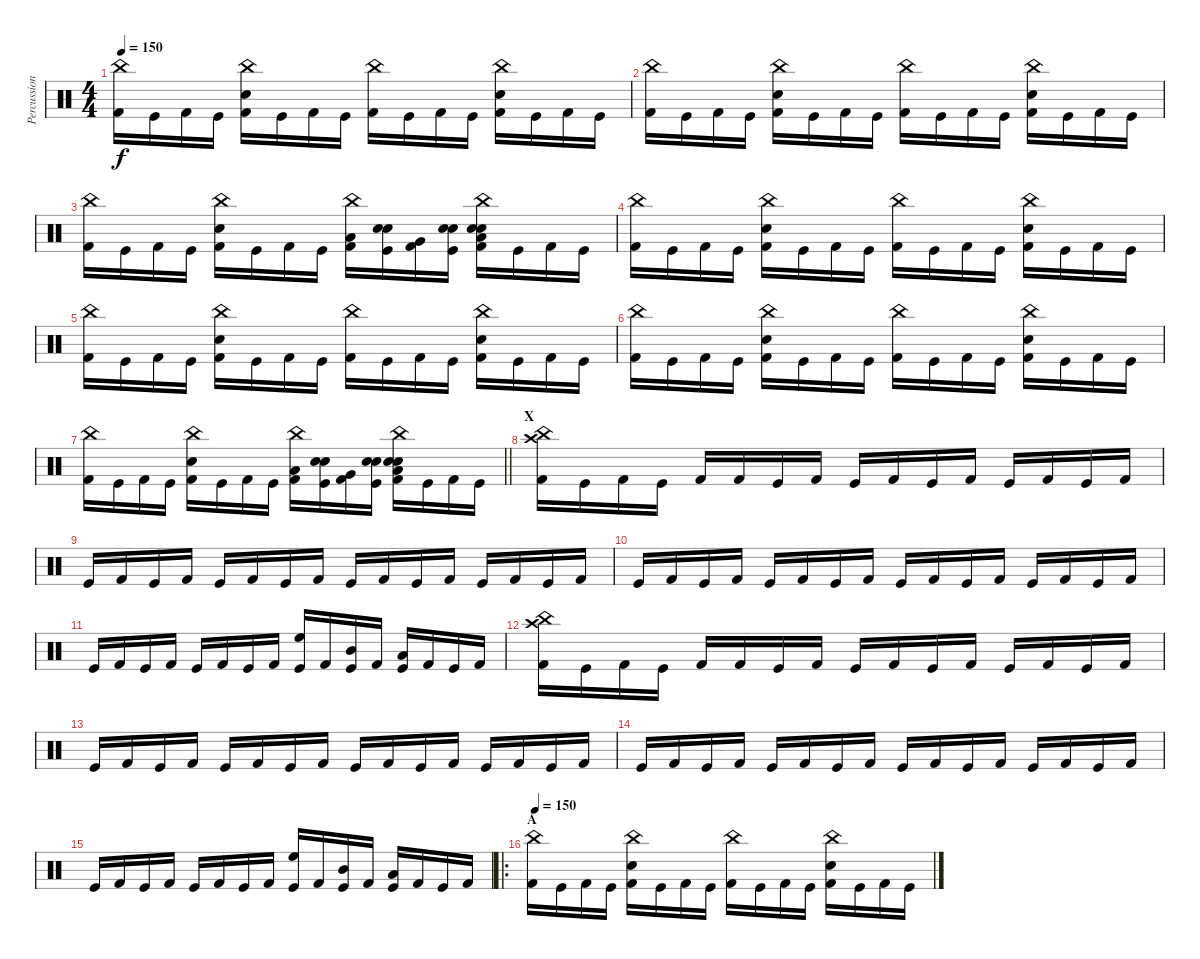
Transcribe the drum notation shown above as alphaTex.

\track ("Percussion" "Percussion") {instrument percussion}
\staff {score}
\articulation defaults
\ts (4 4)
\tempo 150
\clef neutral
\ks c
("China (hit)" "Kick (hit) 2").16{dy f} "Kick (hit)".16 "Kick (hit) 2".16 "Kick (hit)".16 ("China (hit)" "Snare (hit) 2" "Kick (hit) 2").16 "Kick (hit)".16 "Kick (hit) 2".16 "Kick (hit)".16 ("China (hit)" "Kick (hit) 2").16 "Kick (hit)".16 "Kick (hit) 2".16 "Kick (hit)".16 ("China (hit)" "Snare (hit) 2" "Kick (hit) 2").16 "Kick (hit)".16 "Kick (hit) 2".16 "Kick (hit)".16 |
("China (hit)" "Kick (hit) 2").16 "Kick (hit)".16 "Kick (hit) 2".16 "Kick (hit)".16 ("China (hit)" "Snare (hit) 2" "Kick (hit) 2").16 "Kick (hit)".16 "Kick (hit) 2".16 "Kick (hit)".16 ("China (hit)" "Kick (hit) 2").16 "Kick (hit)".16 "Kick (hit) 2".16 "Kick (hit)".16 ("China (hit)" "Snare (hit) 2" "Kick (hit) 2").16 "Kick (hit)".16 "Kick (hit) 2".16 "Kick (hit)".16 |
("China (hit)" "Kick (hit) 2").16 "Kick (hit)".16 "Kick (hit) 2".16 "Kick (hit)".16 ("China (hit)" "Snare (hit) 2" "Kick (hit) 2").16 "Kick (hit)".16 "Kick (hit) 2".16 "Kick (hit)".16 ("China (hit)" "Low Tom (hit)" "Kick (hit) 2").16 ("Electric Snare (hit)" "Snare (hit) 2" "Kick (hit)").16 ("Very Low Tom (hit)" "Kick (hit) 2").16 ("Electric Snare (hit)" "Snare (hit) 2" "Kick (hit)").16 ("China (hit)" "Snare (hit) 2" "Electric Snare (hit)" "Low Floor Tom (hit)" "Kick (hit) 2").16 "Kick (hit)".16 "Kick (hit) 2".16 "Kick (hit)".16 |
("China (hit)" "Kick (hit) 2").16 "Kick (hit)".16 "Kick (hit) 2".16 "Kick (hit)".16 ("China (hit)" "Snare (hit) 2" "Kick (hit) 2").16 "Kick (hit)".16 "Kick (hit) 2".16 "Kick (hit)".16 ("China (hit)" "Kick (hit) 2").16 "Kick (hit)".16 "Kick (hit) 2".16 "Kick (hit)".16 ("China (hit)" "Snare (hit) 2" "Kick (hit) 2").16 "Kick (hit)".16 "Kick (hit) 2".16 "Kick (hit)".16 |
("China (hit)" "Kick (hit) 2").16 "Kick (hit)".16 "Kick (hit) 2".16 "Kick (hit)".16 ("China (hit)" "Snare (hit) 2" "Kick (hit) 2").16 "Kick (hit)".16 "Kick (hit) 2".16 "Kick (hit)".16 ("China (hit)" "Kick (hit) 2").16 "Kick (hit)".16 "Kick (hit) 2".16 "Kick (hit)".16 ("China (hit)" "Snare (hit) 2" "Kick (hit) 2").16 "Kick (hit)".16 "Kick (hit) 2".16 "Kick (hit)".16 |
("China (hit)" "Kick (hit) 2").16 "Kick (hit)".16 "Kick (hit) 2".16 "Kick (hit)".16 ("China (hit)" "Snare (hit) 2" "Kick (hit) 2").16 "Kick (hit)".16 "Kick (hit) 2".16 "Kick (hit)".16 ("China (hit)" "Kick (hit) 2").16 "Kick (hit)".16 "Kick (hit) 2".16 "Kick (hit)".16 ("China (hit)" "Snare (hit) 2" "Kick (hit) 2").16 "Kick (hit)".16 "Kick (hit) 2".16 "Kick (hit)".16 |
\barLineRight lightlight
("China (hit)" "Kick (hit) 2").16 "Kick (hit)".16 "Kick (hit) 2".16 "Kick (hit)".16 ("China (hit)" "Snare (hit) 2" "Kick (hit) 2").16 "Kick (hit)".16 "Kick (hit) 2".16 "Kick (hit)".16 ("China (hit)" "Low Tom (hit)" "Kick (hit) 2").16 ("Electric Snare (hit)" "Snare (hit) 2" "Kick (hit)").16 ("Very Low Tom (hit)" "Kick (hit) 2").16 ("Electric Snare (hit)" "Snare (hit) 2" "Kick (hit)").16 ("China (hit)" "Snare (hit) 2" "Electric Snare (hit)" "Low Floor Tom (hit)" "Kick (hit) 2").16 "Kick (hit)".16 "Kick (hit) 2".16 "Kick (hit)".16 |
\section ("" "X")
("Crash high (hit)" "China (hit)" "Kick (hit) 2").16 "Kick (hit)".16 "Kick (hit) 2".16 "Kick (hit)".16 "Kick (hit) 2".16 "Kick (hit) 2".16 "Kick (hit)".16 "Kick (hit) 2".16 "Kick (hit)".16 "Kick (hit) 2".16 "Kick (hit)".16 "Kick (hit) 2".16 "Kick (hit)".16 "Kick (hit) 2".16 "Kick (hit)".16 "Kick (hit) 2".16 |
"Kick (hit)".16 "Kick (hit) 2".16 "Kick (hit)".16 "Kick (hit) 2".16 "Kick (hit)".16 "Kick (hit) 2".16 "Kick (hit)".16 "Kick (hit) 2".16 "Kick (hit)".16 "Kick (hit) 2".16 "Kick (hit)".16 "Kick (hit) 2".16 "Kick (hit)".16 "Kick (hit) 2".16 "Kick (hit)".16 "Kick (hit) 2".16 |
"Kick (hit)".16 "Kick (hit) 2".16 "Kick (hit)".16 "Kick (hit) 2".16 "Kick (hit)".16 "Kick (hit) 2".16 "Kick (hit)".16 "Kick (hit) 2".16 "Kick (hit)".16 "Kick (hit) 2".16 "Kick (hit)".16 "Kick (hit) 2".16 "Kick (hit)".16 "Kick (hit) 2".16 "Kick (hit)".16 "Kick (hit) 2".16 |
"Kick (hit)".16 "Kick (hit) 2".16 "Kick (hit)".16 "Kick (hit) 2".16 "Kick (hit)".16 "Kick (hit) 2".16 "Kick (hit)".16 "Kick (hit) 2".16 ("High Floor Tom (hit)" "Kick (hit)").16 "Kick (hit) 2".16 ("Mid Tom (hit)" "Kick (hit)").16 "Kick (hit) 2".16 ("Low Floor Tom (hit)" "Kick (hit)").16 "Kick (hit) 2".16 "Kick (hit)".16 "Kick (hit) 2".16 |
("Crash high (hit)" "China (hit)" "Kick (hit) 2").16 "Kick (hit)".16 "Kick (hit) 2".16 "Kick (hit)".16 "Kick (hit) 2".16 "Kick (hit) 2".16 "Kick (hit)".16 "Kick (hit) 2".16 "Kick (hit)".16 "Kick (hit) 2".16 "Kick (hit)".16 "Kick (hit) 2".16 "Kick (hit)".16 "Kick (hit) 2".16 "Kick (hit)".16 "Kick (hit) 2".16 |
"Kick (hit)".16 "Kick (hit) 2".16 "Kick (hit)".16 "Kick (hit) 2".16 "Kick (hit)".16 "Kick (hit) 2".16 "Kick (hit)".16 "Kick (hit) 2".16 "Kick (hit)".16 "Kick (hit) 2".16 "Kick (hit)".16 "Kick (hit) 2".16 "Kick (hit)".16 "Kick (hit) 2".16 "Kick (hit)".16 "Kick (hit) 2".16 |
"Kick (hit)".16 "Kick (hit) 2".16 "Kick (hit)".16 "Kick (hit) 2".16 "Kick (hit)".16 "Kick (hit) 2".16 "Kick (hit)".16 "Kick (hit) 2".16 "Kick (hit)".16 "Kick (hit) 2".16 "Kick (hit)".16 "Kick (hit) 2".16 "Kick (hit)".16 "Kick (hit) 2".16 "Kick (hit)".16 "Kick (hit) 2".16 |
"Kick (hit)".16 "Kick (hit) 2".16 "Kick (hit)".16 "Kick (hit) 2".16 "Kick (hit)".16 "Kick (hit) 2".16 "Kick (hit)".16 "Kick (hit) 2".16 ("High Floor Tom (hit)" "Kick (hit)").16 "Kick (hit) 2".16 ("Mid Tom (hit)" "Kick (hit)").16 "Kick (hit) 2".16 ("Low Floor Tom (hit)" "Kick (hit)").16 "Kick (hit) 2".16 "Kick (hit)".16 "Kick (hit) 2".16 |
\ro
\section ("" "A")
\tempo 150
("China (hit)" "Kick (hit) 2").16 "Kick (hit)".16 "Kick (hit) 2".16 "Kick (hit)".16 ("China (hit)" "Snare (hit) 2" "Kick (hit) 2").16 "Kick (hit)".16 "Kick (hit) 2".16 "Kick (hit)".16 ("China (hit)" "Kick (hit) 2").16 "Kick (hit)".16 "Kick (hit) 2".16 "Kick (hit)".16 ("China (hit)" "Snare (hit) 2" "Kick (hit) 2").16 "Kick (hit)".16 "Kick (hit) 2".16 "Kick (hit)".16
